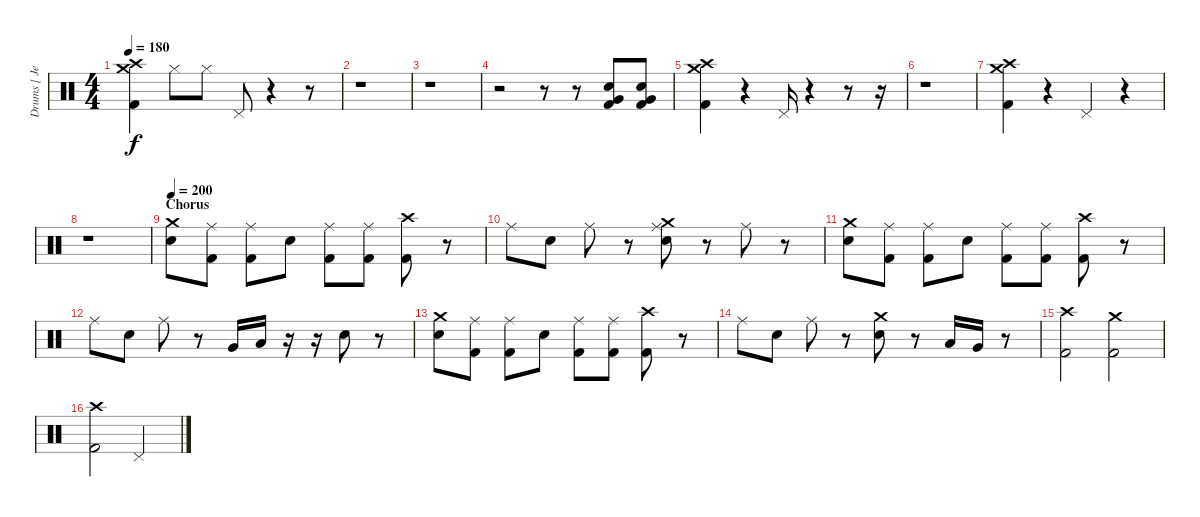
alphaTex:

\track ("Drums [ Jesse Ingelevics ]" "Drums [ Je") {instrument percussion}
\staff {score}
\articulation defaults
\ts (4 4)
\tempo 180
\clef neutral
\ks c
("Crash medium (hit)" "Crash high (hit)" "Kick (hit) 2").4{dy f} "Hi-Hat (closed)".8 "Hi-Hat (closed)".8 "Pedal Hi-Hat (hit)".8 r.4 r.8 |
r.1 |
r.1 |
r.2 r.8 r.8 ("Electric Snare (hit)" "Very Low Tom (hit)" "Kick (hit) 2").8 ("Electric Snare (hit)" "Very Low Tom (hit)" "Kick (hit) 2").8 |
("Crash high (hit)" "Crash medium (hit)" "Kick (hit) 2").4 r.4 "Pedal Hi-Hat (hit)".16 r.4 r.8 r.16 |
r.1 |
("Crash high (hit)" "Crash medium (hit)" "Kick (hit) 2").4 r.4 "Pedal Hi-Hat (hit)".4 r.4 |
r.1 |
\section ("" "Chorus")
\tempo 200
("Crash medium (hit)" "Electric Snare (hit)").8 ("Ride (middle)" "Kick (hit) 2").8 ("Ride (middle)" "Kick (hit) 2").8 "Electric Snare (hit)".8 ("Ride (middle)" "Kick (hit) 2").8 ("Ride (middle)" "Kick (hit) 2").8 ("Crash high (hit)" "Kick (hit) 2").8 r.8 |
"Ride (middle)".8 "Electric Snare (hit)".8 "Ride (middle)".8 r.8 ("Crash medium (hit)" "Ride (middle)" "Electric Snare (hit)").8 r.8 "Ride (middle)".8 r.8 |
("Crash medium (hit)" "Electric Snare (hit)").8 ("Ride (middle)" "Kick (hit) 2").8 ("Ride (middle)" "Kick (hit) 2").8 "Electric Snare (hit)".8 ("Ride (middle)" "Kick (hit) 2").8 ("Ride (middle)" "Kick (hit) 2").8 ("Crash high (hit)" "Kick (hit) 2").8 r.8 |
"Ride (middle)".8 "Electric Snare (hit)".8 "Ride (middle)".8 r.8 "Very Low Tom (hit)".16 "Low Floor Tom (hit)".16 r.16 r.16 "Electric Snare (hit)".8 r.8 |
("Crash medium (hit)" "Electric Snare (hit)").8 ("Ride (middle)" "Kick (hit) 2").8 ("Ride (middle)" "Kick (hit) 2").8 "Electric Snare (hit)".8 ("Ride (middle)" "Kick (hit) 2").8 ("Ride (middle)" "Kick (hit) 2").8 ("Crash high (hit)" "Kick (hit) 2").8 r.8 |
"Ride (middle)".8 "Electric Snare (hit)".8 "Ride (middle)".8 r.8 ("Crash medium (hit)" "Electric Snare (hit)").8 r.8 "Low Floor Tom (hit)".16 "Very Low Tom (hit)".16 r.8 |
("Crash high (hit)" "Kick (hit) 2").2 ("Crash medium (hit)" "Kick (hit) 2").2 |
("Crash high (hit)" "Kick (hit) 2").2 "Pedal Hi-Hat (hit)".2
